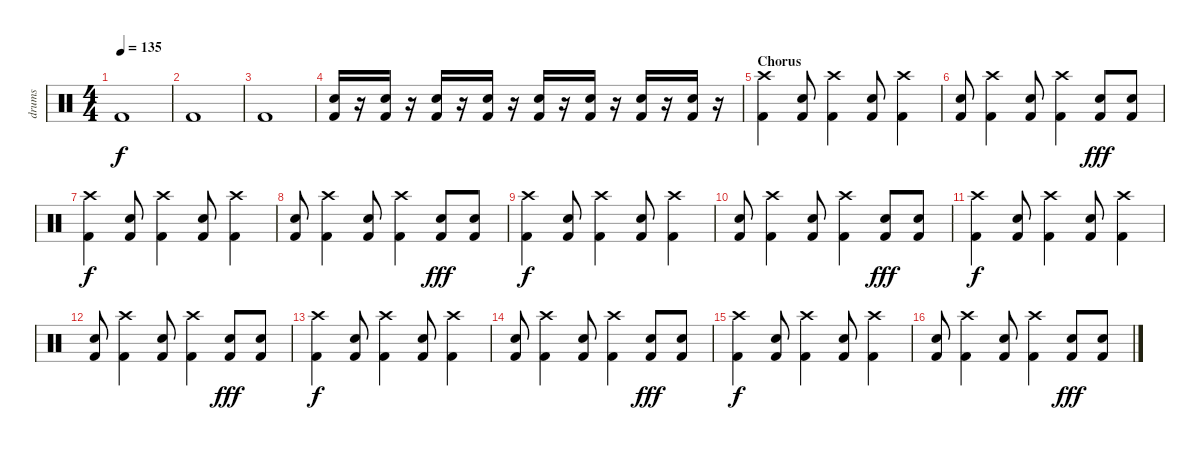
\track ("drums" "drums") {instrument percussion}
\staff {score}
\articulation defaults
\ts (4 4)
\tempo 135
\clef neutral
\ks c "Kick (hit) 2".1{dy f}
|
"Kick (hit) 2".1 |
"Kick (hit) 2".1 |
("Electric Snare (hit)" "Kick (hit) 2").16 r.16 ("Electric Snare (hit)" "Kick (hit) 2").16 r.16 ("Electric Snare (hit)" "Kick (hit) 2").16 r.16 ("Electric Snare (hit)" "Kick (hit) 2").16 r.16 ("Electric Snare (hit)" "Kick (hit) 2").16 r.16 ("Electric Snare (hit)" "Kick (hit) 2").16 r.16 ("Electric Snare (hit)" "Kick (hit) 2").16 r.16 ("Electric Snare (hit)" "Kick (hit) 2").16 r.16 |
\section ("" "Chorus")
("Crash high (hit)" "Kick (hit) 2").4 ("Electric Snare (hit)" "Kick (hit) 2").8 ("Crash high (hit)" "Kick (hit) 2").4 ("Electric Snare (hit)" "Kick (hit) 2").8 ("Crash high (hit)" "Kick (hit) 2").4 |
("Electric Snare (hit)" "Kick (hit) 2").8 ("Crash high (hit)" "Kick (hit) 2").4 ("Electric Snare (hit)" "Kick (hit) 2").8 ("Crash high (hit)" "Kick (hit) 2").4 ("Electric Snare (hit)" "Kick (hit) 2").8{dy fff} ("Electric Snare (hit)" "Kick (hit) 2").8 |
("Crash high (hit)" "Kick (hit) 2").4{dy f} ("Electric Snare (hit)" "Kick (hit) 2").8 ("Crash high (hit)" "Kick (hit) 2").4 ("Electric Snare (hit)" "Kick (hit) 2").8 ("Crash high (hit)" "Kick (hit) 2").4 |
("Electric Snare (hit)" "Kick (hit) 2").8 ("Crash high (hit)" "Kick (hit) 2").4 ("Electric Snare (hit)" "Kick (hit) 2").8 ("Crash high (hit)" "Kick (hit) 2").4 ("Electric Snare (hit)" "Kick (hit) 2").8{dy fff} ("Electric Snare (hit)" "Kick (hit) 2").8 |
("Crash high (hit)" "Kick (hit) 2").4{dy f} ("Electric Snare (hit)" "Kick (hit) 2").8 ("Crash high (hit)" "Kick (hit) 2").4 ("Electric Snare (hit)" "Kick (hit) 2").8 ("Crash high (hit)" "Kick (hit) 2").4 |
("Electric Snare (hit)" "Kick (hit) 2").8 ("Crash high (hit)" "Kick (hit) 2").4 ("Electric Snare (hit)" "Kick (hit) 2").8 ("Crash high (hit)" "Kick (hit) 2").4 ("Electric Snare (hit)" "Kick (hit) 2").8{dy fff} ("Electric Snare (hit)" "Kick (hit) 2").8 |
("Crash high (hit)" "Kick (hit) 2").4{dy f} ("Electric Snare (hit)" "Kick (hit) 2").8 ("Crash high (hit)" "Kick (hit) 2").4 ("Electric Snare (hit)" "Kick (hit) 2").8 ("Crash high (hit)" "Kick (hit) 2").4 |
("Electric Snare (hit)" "Kick (hit) 2").8 ("Crash high (hit)" "Kick (hit) 2").4 ("Electric Snare (hit)" "Kick (hit) 2").8 ("Crash high (hit)" "Kick (hit) 2").4 ("Electric Snare (hit)" "Kick (hit) 2").8{dy fff} ("Electric Snare (hit)" "Kick (hit) 2").8 |
("Crash high (hit)" "Kick (hit) 2").4{dy f} ("Electric Snare (hit)" "Kick (hit) 2").8 ("Crash high (hit)" "Kick (hit) 2").4 ("Electric Snare (hit)" "Kick (hit) 2").8 ("Crash high (hit)" "Kick (hit) 2").4 |
("Electric Snare (hit)" "Kick (hit) 2").8 ("Crash high (hit)" "Kick (hit) 2").4 ("Electric Snare (hit)" "Kick (hit) 2").8 ("Crash high (hit)" "Kick (hit) 2").4 ("Electric Snare (hit)" "Kick (hit) 2").8{dy fff} ("Electric Snare (hit)" "Kick (hit) 2").8 |
("Crash high (hit)" "Kick (hit) 2").4{dy f} ("Electric Snare (hit)" "Kick (hit) 2").8 ("Crash high (hit)" "Kick (hit) 2").4 ("Electric Snare (hit)" "Kick (hit) 2").8 ("Crash high (hit)" "Kick (hit) 2").4 |
("Electric Snare (hit)" "Kick (hit) 2").8 ("Crash high (hit)" "Kick (hit) 2").4 ("Electric Snare (hit)" "Kick (hit) 2").8 ("Crash high (hit)" "Kick (hit) 2").4 ("Electric Snare (hit)" "Kick (hit) 2").8{dy fff} ("Electric Snare (hit)" "Kick (hit) 2").8
